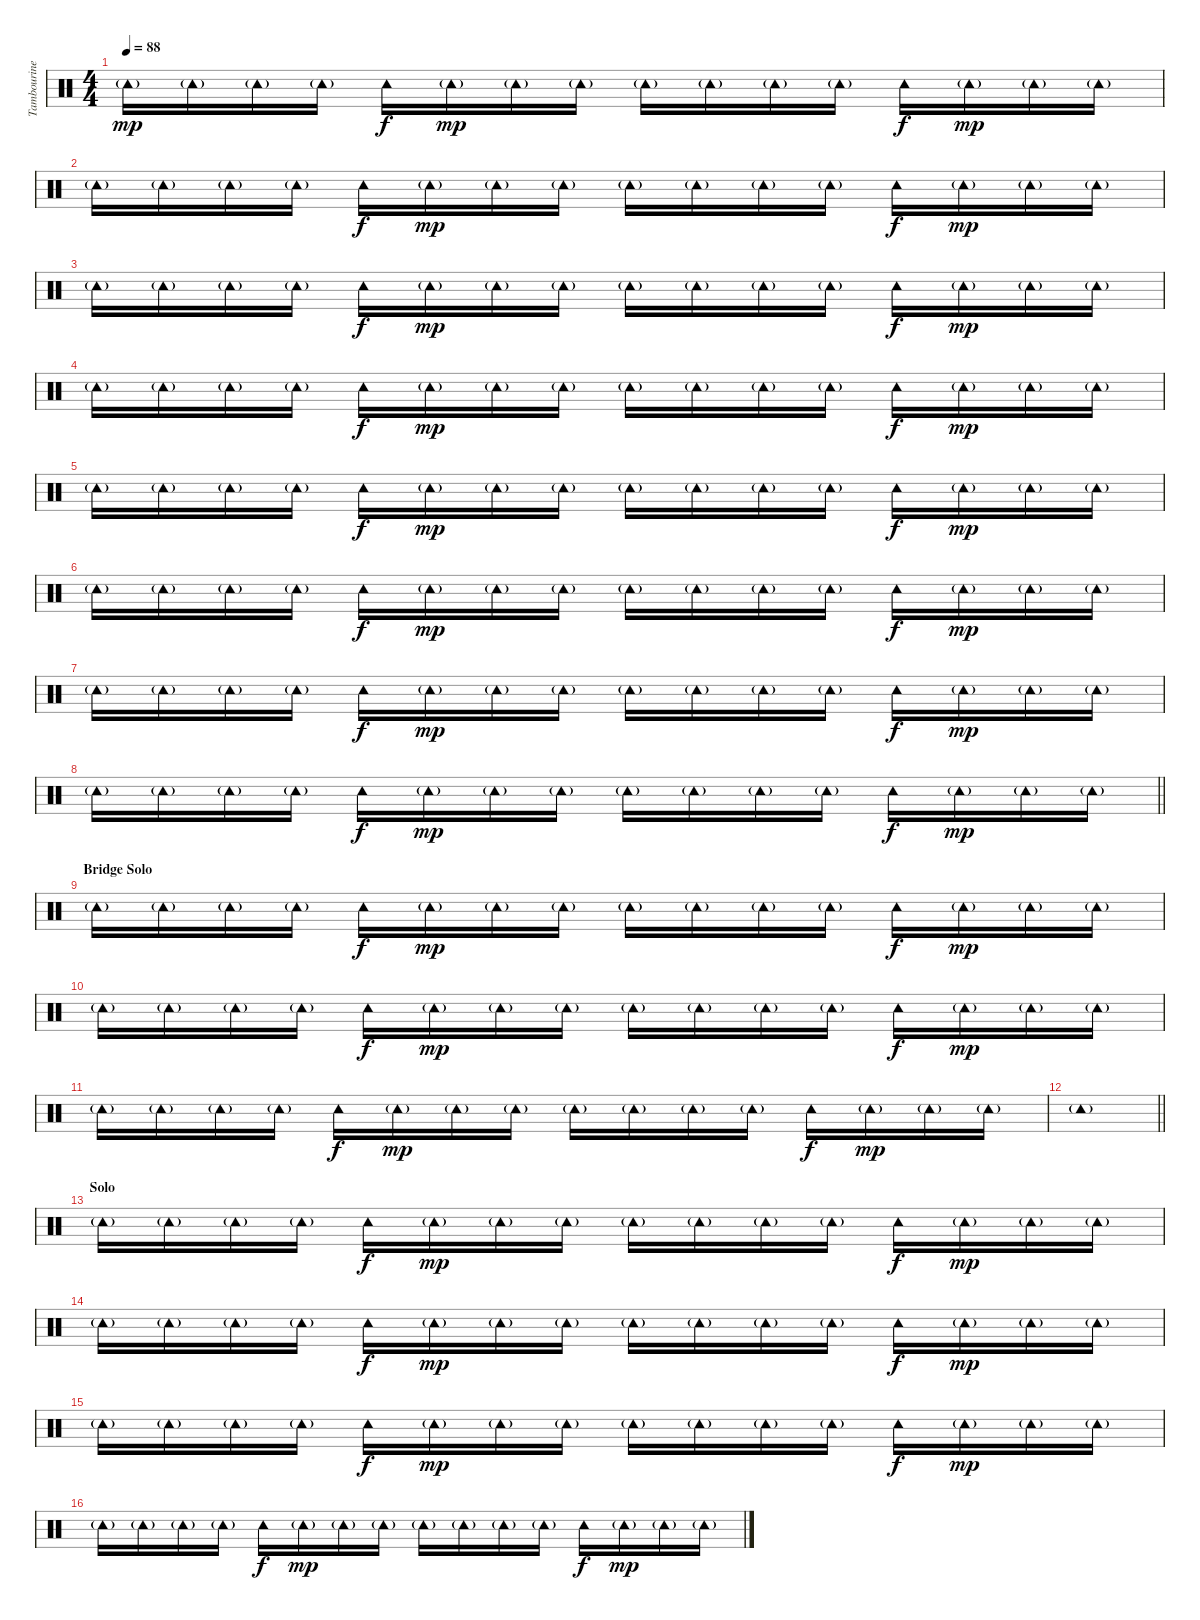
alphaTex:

\track ("Tambourine" "Tambourine") {instrument percussion}
\staff {score}
\articulation defaults
\ts (4 4)
\tempo 88
\clef neutral
\ks c "Tambourine (hit)"{g}.16{dy mp} "Tambourine (hit)"{g}.16 "Tambourine (hit)"{g}.16 "Tambourine (hit)"{g}.16 "Tambourine (hit)".16{dy f} "Tambourine (hit)"{g}.16{dy mp} "Tambourine (hit)"{g}.16 "Tambourine (hit)"{g}.16 "Tambourine (hit)"{g}.16 "Tambourine (hit)"{g}.16 "Tambourine (hit)"{g}.16 "Tambourine (hit)"{g}.16 "Tambourine (hit)".16{dy f} "Tambourine (hit)"{g}.16{dy mp} "Tambourine (hit)"{g}.16 "Tambourine (hit)"{g}.16
|
"Tambourine (hit)"{g}.16 "Tambourine (hit)"{g}.16 "Tambourine (hit)"{g}.16 "Tambourine (hit)"{g}.16 "Tambourine (hit)".16{dy f} "Tambourine (hit)"{g}.16{dy mp} "Tambourine (hit)"{g}.16 "Tambourine (hit)"{g}.16 "Tambourine (hit)"{g}.16 "Tambourine (hit)"{g}.16 "Tambourine (hit)"{g}.16 "Tambourine (hit)"{g}.16 "Tambourine (hit)".16{dy f} "Tambourine (hit)"{g}.16{dy mp} "Tambourine (hit)"{g}.16 "Tambourine (hit)"{g}.16 |
"Tambourine (hit)"{g}.16 "Tambourine (hit)"{g}.16 "Tambourine (hit)"{g}.16 "Tambourine (hit)"{g}.16 "Tambourine (hit)".16{dy f} "Tambourine (hit)"{g}.16{dy mp} "Tambourine (hit)"{g}.16 "Tambourine (hit)"{g}.16 "Tambourine (hit)"{g}.16 "Tambourine (hit)"{g}.16 "Tambourine (hit)"{g}.16 "Tambourine (hit)"{g}.16 "Tambourine (hit)".16{dy f} "Tambourine (hit)"{g}.16{dy mp} "Tambourine (hit)"{g}.16 "Tambourine (hit)"{g}.16 |
"Tambourine (hit)"{g}.16 "Tambourine (hit)"{g}.16 "Tambourine (hit)"{g}.16 "Tambourine (hit)"{g}.16 "Tambourine (hit)".16{dy f} "Tambourine (hit)"{g}.16{dy mp} "Tambourine (hit)"{g}.16 "Tambourine (hit)"{g}.16 "Tambourine (hit)"{g}.16 "Tambourine (hit)"{g}.16 "Tambourine (hit)"{g}.16 "Tambourine (hit)"{g}.16 "Tambourine (hit)".16{dy f} "Tambourine (hit)"{g}.16{dy mp} "Tambourine (hit)"{g}.16 "Tambourine (hit)"{g}.16 |
"Tambourine (hit)"{g}.16 "Tambourine (hit)"{g}.16 "Tambourine (hit)"{g}.16 "Tambourine (hit)"{g}.16 "Tambourine (hit)".16{dy f} "Tambourine (hit)"{g}.16{dy mp} "Tambourine (hit)"{g}.16 "Tambourine (hit)"{g}.16 "Tambourine (hit)"{g}.16 "Tambourine (hit)"{g}.16 "Tambourine (hit)"{g}.16 "Tambourine (hit)"{g}.16 "Tambourine (hit)".16{dy f} "Tambourine (hit)"{g}.16{dy mp} "Tambourine (hit)"{g}.16 "Tambourine (hit)"{g}.16 |
"Tambourine (hit)"{g}.16 "Tambourine (hit)"{g}.16 "Tambourine (hit)"{g}.16 "Tambourine (hit)"{g}.16 "Tambourine (hit)".16{dy f} "Tambourine (hit)"{g}.16{dy mp} "Tambourine (hit)"{g}.16 "Tambourine (hit)"{g}.16 "Tambourine (hit)"{g}.16 "Tambourine (hit)"{g}.16 "Tambourine (hit)"{g}.16 "Tambourine (hit)"{g}.16 "Tambourine (hit)".16{dy f} "Tambourine (hit)"{g}.16{dy mp} "Tambourine (hit)"{g}.16 "Tambourine (hit)"{g}.16 |
"Tambourine (hit)"{g}.16 "Tambourine (hit)"{g}.16 "Tambourine (hit)"{g}.16 "Tambourine (hit)"{g}.16 "Tambourine (hit)".16{dy f} "Tambourine (hit)"{g}.16{dy mp} "Tambourine (hit)"{g}.16 "Tambourine (hit)"{g}.16 "Tambourine (hit)"{g}.16 "Tambourine (hit)"{g}.16 "Tambourine (hit)"{g}.16 "Tambourine (hit)"{g}.16 "Tambourine (hit)".16{dy f} "Tambourine (hit)"{g}.16{dy mp} "Tambourine (hit)"{g}.16 "Tambourine (hit)"{g}.16 |
\barLineRight lightlight "Tambourine (hit)"{g}.16 "Tambourine (hit)"{g}.16 "Tambourine (hit)"{g}.16 "Tambourine (hit)"{g}.16 "Tambourine (hit)".16{dy f} "Tambourine (hit)"{g}.16{dy mp} "Tambourine (hit)"{g}.16 "Tambourine (hit)"{g}.16 "Tambourine (hit)"{g}.16 "Tambourine (hit)"{g}.16 "Tambourine (hit)"{g}.16 "Tambourine (hit)"{g}.16 "Tambourine (hit)".16{dy f} "Tambourine (hit)"{g}.16{dy mp} "Tambourine (hit)"{g}.16 "Tambourine (hit)"{g}.16
|
\section ("" "Bridge Solo")
"Tambourine (hit)"{g}.16 "Tambourine (hit)"{g}.16 "Tambourine (hit)"{g}.16 "Tambourine (hit)"{g}.16 "Tambourine (hit)".16{dy f} "Tambourine (hit)"{g}.16{dy mp} "Tambourine (hit)"{g}.16 "Tambourine (hit)"{g}.16 "Tambourine (hit)"{g}.16 "Tambourine (hit)"{g}.16 "Tambourine (hit)"{g}.16 "Tambourine (hit)"{g}.16 "Tambourine (hit)".16{dy f} "Tambourine (hit)"{g}.16{dy mp} "Tambourine (hit)"{g}.16 "Tambourine (hit)"{g}.16 |
"Tambourine (hit)"{g}.16 "Tambourine (hit)"{g}.16 "Tambourine (hit)"{g}.16 "Tambourine (hit)"{g}.16 "Tambourine (hit)".16{dy f} "Tambourine (hit)"{g}.16{dy mp} "Tambourine (hit)"{g}.16 "Tambourine (hit)"{g}.16 "Tambourine (hit)"{g}.16 "Tambourine (hit)"{g}.16 "Tambourine (hit)"{g}.16 "Tambourine (hit)"{g}.16 "Tambourine (hit)".16{dy f} "Tambourine (hit)"{g}.16{dy mp} "Tambourine (hit)"{g}.16 "Tambourine (hit)"{g}.16 |
"Tambourine (hit)"{g}.16 "Tambourine (hit)"{g}.16 "Tambourine (hit)"{g}.16 "Tambourine (hit)"{g}.16 "Tambourine (hit)".16{dy f} "Tambourine (hit)"{g}.16{dy mp} "Tambourine (hit)"{g}.16 "Tambourine (hit)"{g}.16 "Tambourine (hit)"{g}.16 "Tambourine (hit)"{g}.16 "Tambourine (hit)"{g}.16 "Tambourine (hit)"{g}.16 "Tambourine (hit)".16{dy f} "Tambourine (hit)"{g}.16{dy mp} "Tambourine (hit)"{g}.16 "Tambourine (hit)"{g}.16 |
\barLineRight lightlight "Tambourine (hit)"{g}.1
|
\section ("" "Solo")
"Tambourine (hit)"{g}.16 "Tambourine (hit)"{g}.16 "Tambourine (hit)"{g}.16 "Tambourine (hit)"{g}.16 "Tambourine (hit)".16{dy f} "Tambourine (hit)"{g}.16{dy mp} "Tambourine (hit)"{g}.16 "Tambourine (hit)"{g}.16 "Tambourine (hit)"{g}.16 "Tambourine (hit)"{g}.16 "Tambourine (hit)"{g}.16 "Tambourine (hit)"{g}.16 "Tambourine (hit)".16{dy f} "Tambourine (hit)"{g}.16{dy mp} "Tambourine (hit)"{g}.16 "Tambourine (hit)"{g}.16 |
"Tambourine (hit)"{g}.16 "Tambourine (hit)"{g}.16 "Tambourine (hit)"{g}.16 "Tambourine (hit)"{g}.16 "Tambourine (hit)".16{dy f} "Tambourine (hit)"{g}.16{dy mp} "Tambourine (hit)"{g}.16 "Tambourine (hit)"{g}.16 "Tambourine (hit)"{g}.16 "Tambourine (hit)"{g}.16 "Tambourine (hit)"{g}.16 "Tambourine (hit)"{g}.16 "Tambourine (hit)".16{dy f} "Tambourine (hit)"{g}.16{dy mp} "Tambourine (hit)"{g}.16 "Tambourine (hit)"{g}.16 |
"Tambourine (hit)"{g}.16 "Tambourine (hit)"{g}.16 "Tambourine (hit)"{g}.16 "Tambourine (hit)"{g}.16 "Tambourine (hit)".16{dy f} "Tambourine (hit)"{g}.16{dy mp} "Tambourine (hit)"{g}.16 "Tambourine (hit)"{g}.16 "Tambourine (hit)"{g}.16 "Tambourine (hit)"{g}.16 "Tambourine (hit)"{g}.16 "Tambourine (hit)"{g}.16 "Tambourine (hit)".16{dy f} "Tambourine (hit)"{g}.16{dy mp} "Tambourine (hit)"{g}.16 "Tambourine (hit)"{g}.16 |
"Tambourine (hit)"{g}.16 "Tambourine (hit)"{g}.16 "Tambourine (hit)"{g}.16 "Tambourine (hit)"{g}.16 "Tambourine (hit)".16{dy f} "Tambourine (hit)"{g}.16{dy mp} "Tambourine (hit)"{g}.16 "Tambourine (hit)"{g}.16 "Tambourine (hit)"{g}.16 "Tambourine (hit)"{g}.16 "Tambourine (hit)"{g}.16 "Tambourine (hit)"{g}.16 "Tambourine (hit)".16{dy f} "Tambourine (hit)"{g}.16{dy mp} "Tambourine (hit)"{g}.16 "Tambourine (hit)"{g}.16
